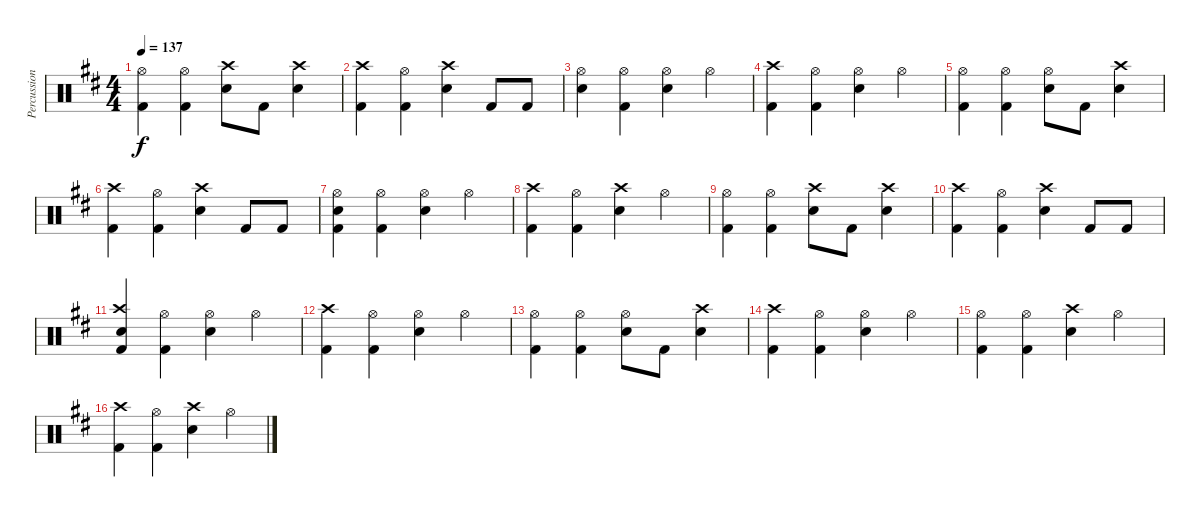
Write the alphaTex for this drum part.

\track ("Percussion" "Percussion") {instrument percussion}
\staff {score}
\articulation defaults
\ts (4 4)
\tempo 137
\clef neutral
\ks d
("Hi-Hat (open)" "Kick (hit) 2").4{dy f} ("Hi-Hat (open)" "Kick (hit) 2").4 ("Crash high (hit)" "Snare (hit) 2").8 "Kick (hit) 2".8 ("Crash high (hit)" "Snare (hit) 2").4 |
("Crash high (hit)" "Kick (hit) 2").4 ("Hi-Hat (open)" "Kick (hit) 2").4 ("Crash high (hit)" "Snare (hit) 2").4 "Kick (hit) 2".8 "Kick (hit) 2".8 |
("Hi-Hat (open)" "Snare (hit) 2").4 ("Hi-Hat (open)" "Kick (hit) 2").4 ("Hi-Hat (open)" "Snare (hit) 2").4 "Hi-Hat (open)".4 |
("Crash high (hit)" "Kick (hit) 2").4 ("Hi-Hat (open)" "Kick (hit) 2").4 ("Hi-Hat (open)" "Snare (hit) 2").4 "Hi-Hat (open)".4 |
("Hi-Hat (open)" "Kick (hit) 2").4 ("Hi-Hat (open)" "Kick (hit) 2").4 ("Hi-Hat (open)" "Snare (hit) 2").8 "Kick (hit) 2".8 ("Crash high (hit)" "Snare (hit) 2").4 |
("Crash high (hit)" "Kick (hit) 2").4 ("Hi-Hat (open)" "Kick (hit) 2").4 ("Crash high (hit)" "Snare (hit) 2").4 "Kick (hit) 2".8 "Kick (hit) 2".8 |
("Hi-Hat (open)" "Snare (hit) 2" "Kick (hit) 2").4 ("Hi-Hat (open)" "Kick (hit) 2").4 ("Hi-Hat (open)" "Snare (hit) 2").4 "Hi-Hat (open)".4 |
("Crash high (hit)" "Kick (hit) 2").4 ("Hi-Hat (open)" "Kick (hit) 2").4 ("Crash high (hit)" "Snare (hit) 2").4 "Hi-Hat (open)".4 |
("Hi-Hat (open)" "Kick (hit) 2").4 ("Hi-Hat (open)" "Kick (hit) 2").4 ("Crash high (hit)" "Snare (hit) 2").8 "Kick (hit) 2".8 ("Crash high (hit)" "Snare (hit) 2").4 |
("Crash high (hit)" "Kick (hit) 2").4 ("Hi-Hat (open)" "Kick (hit) 2").4 ("Crash high (hit)" "Snare (hit) 2").4 "Kick (hit) 2".8 "Kick (hit) 2".8 |
("Crash high (hit)" "Snare (hit) 2" "Kick (hit) 2").4 ("Hi-Hat (open)" "Kick (hit) 2").4 ("Hi-Hat (open)" "Snare (hit) 2").4 "Hi-Hat (open)".4 |
("Crash high (hit)" "Kick (hit) 2").4 ("Hi-Hat (open)" "Kick (hit) 2").4 ("Hi-Hat (open)" "Snare (hit) 2").4 "Hi-Hat (open)".4 |
("Hi-Hat (open)" "Kick (hit) 2").4 ("Hi-Hat (open)" "Kick (hit) 2").4 ("Hi-Hat (open)" "Snare (hit) 2").8 "Kick (hit) 2".8 ("Crash high (hit)" "Snare (hit) 2").4 |
("Crash high (hit)" "Kick (hit) 2").4 ("Hi-Hat (open)" "Kick (hit) 2").4 ("Hi-Hat (open)" "Snare (hit) 2").4 "Hi-Hat (open)".4 |
("Hi-Hat (open)" "Kick (hit) 2").4 ("Hi-Hat (open)" "Kick (hit) 2").4 ("Crash high (hit)" "Snare (hit) 2").4 "Hi-Hat (open)".4 |
("Crash high (hit)" "Kick (hit) 2").4 ("Hi-Hat (open)" "Kick (hit) 2").4 ("Crash high (hit)" "Snare (hit) 2").4 "Hi-Hat (open)".4
